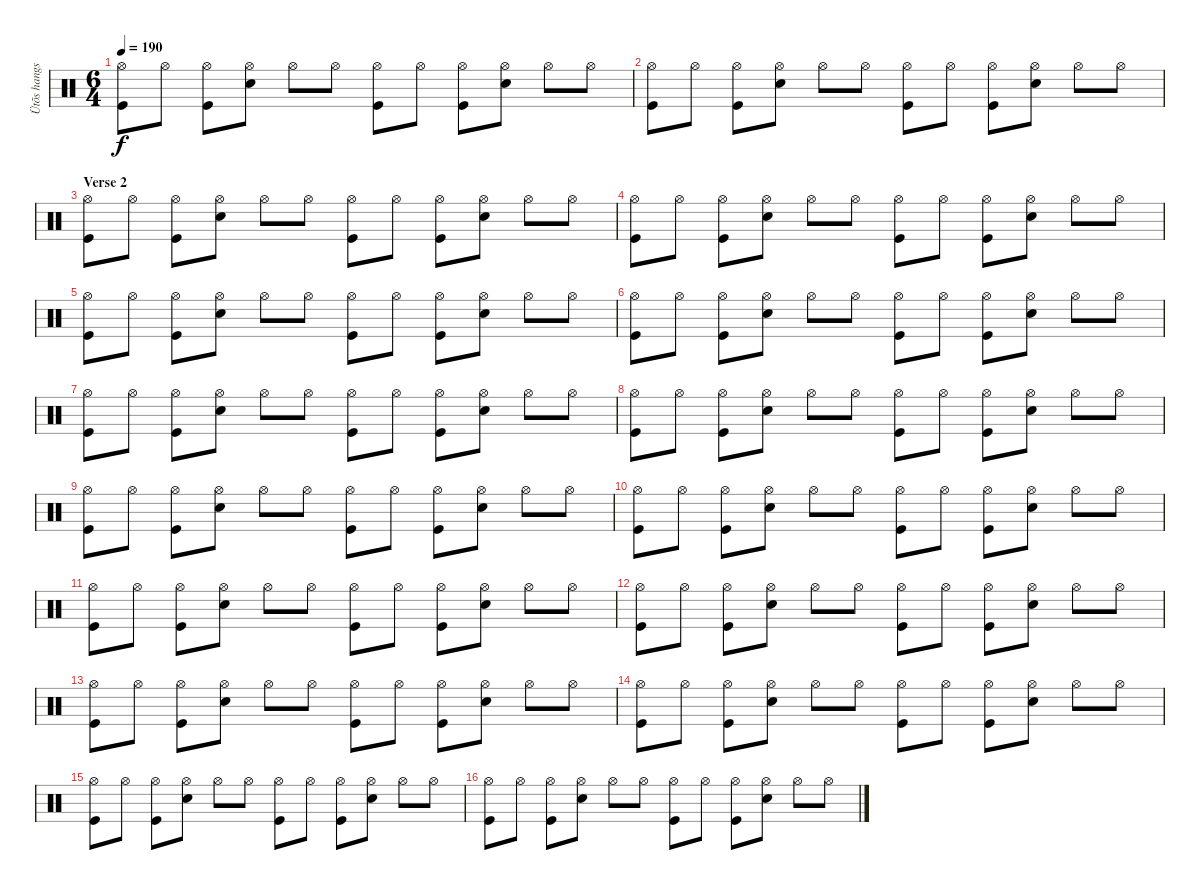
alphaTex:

\track ("Ütõs hangszer" "Ütõs hangs") {instrument percussion}
\staff {score}
\articulation defaults
\ts (6 4)
\tempo 190
\clef neutral
\ks c
("Hi-Hat (open)" "Kick (hit)").8{dy f} "Hi-Hat (open)".8 ("Hi-Hat (open)" "Kick (hit)").8 ("Hi-Hat (open)" "Snare (hit) 2").8 "Hi-Hat (open)".8 "Hi-Hat (open)".8 ("Hi-Hat (open)" "Kick (hit)").8 "Hi-Hat (open)".8 ("Hi-Hat (open)" "Kick (hit)").8 ("Hi-Hat (open)" "Snare (hit) 2").8 "Hi-Hat (open)".8 "Hi-Hat (open)".8 |
("Hi-Hat (open)" "Kick (hit)").8 "Hi-Hat (open)".8 ("Hi-Hat (open)" "Kick (hit)").8 ("Hi-Hat (open)" "Snare (hit) 2").8 "Hi-Hat (open)".8 "Hi-Hat (open)".8 ("Hi-Hat (open)" "Kick (hit)").8 "Hi-Hat (open)".8 ("Hi-Hat (open)" "Kick (hit)").8 ("Hi-Hat (open)" "Snare (hit) 2").8 "Hi-Hat (open)".8 "Hi-Hat (open)".8 |
\section ("" "Verse 2")
("Hi-Hat (open)" "Kick (hit)").8 "Hi-Hat (open)".8 ("Hi-Hat (open)" "Kick (hit)").8 ("Hi-Hat (open)" "Snare (hit) 2").8 "Hi-Hat (open)".8 "Hi-Hat (open)".8 ("Hi-Hat (open)" "Kick (hit)").8 "Hi-Hat (open)".8 ("Hi-Hat (open)" "Kick (hit)").8 ("Hi-Hat (open)" "Snare (hit) 2").8 "Hi-Hat (open)".8 "Hi-Hat (open)".8 |
("Hi-Hat (open)" "Kick (hit)").8 "Hi-Hat (open)".8 ("Hi-Hat (open)" "Kick (hit)").8 ("Hi-Hat (open)" "Snare (hit) 2").8 "Hi-Hat (open)".8 "Hi-Hat (open)".8 ("Hi-Hat (open)" "Kick (hit)").8 "Hi-Hat (open)".8 ("Hi-Hat (open)" "Kick (hit)").8 ("Hi-Hat (open)" "Snare (hit) 2").8 "Hi-Hat (open)".8 "Hi-Hat (open)".8 |
("Hi-Hat (open)" "Kick (hit)").8 "Hi-Hat (open)".8 ("Hi-Hat (open)" "Kick (hit)").8 ("Hi-Hat (open)" "Snare (hit) 2").8 "Hi-Hat (open)".8 "Hi-Hat (open)".8 ("Hi-Hat (open)" "Kick (hit)").8 "Hi-Hat (open)".8 ("Hi-Hat (open)" "Kick (hit)").8 ("Hi-Hat (open)" "Snare (hit) 2").8 "Hi-Hat (open)".8 "Hi-Hat (open)".8 |
("Hi-Hat (open)" "Kick (hit)").8 "Hi-Hat (open)".8 ("Hi-Hat (open)" "Kick (hit)").8 ("Hi-Hat (open)" "Snare (hit) 2").8 "Hi-Hat (open)".8 "Hi-Hat (open)".8 ("Hi-Hat (open)" "Kick (hit)").8 "Hi-Hat (open)".8 ("Hi-Hat (open)" "Kick (hit)").8 ("Hi-Hat (open)" "Snare (hit) 2").8 "Hi-Hat (open)".8 "Hi-Hat (open)".8 |
("Hi-Hat (open)" "Kick (hit)").8 "Hi-Hat (open)".8 ("Hi-Hat (open)" "Kick (hit)").8 ("Hi-Hat (open)" "Snare (hit) 2").8 "Hi-Hat (open)".8 "Hi-Hat (open)".8 ("Hi-Hat (open)" "Kick (hit)").8 "Hi-Hat (open)".8 ("Hi-Hat (open)" "Kick (hit)").8 ("Hi-Hat (open)" "Snare (hit) 2").8 "Hi-Hat (open)".8 "Hi-Hat (open)".8 |
("Hi-Hat (open)" "Kick (hit)").8 "Hi-Hat (open)".8 ("Hi-Hat (open)" "Kick (hit)").8 ("Hi-Hat (open)" "Snare (hit) 2").8 "Hi-Hat (open)".8 "Hi-Hat (open)".8 ("Hi-Hat (open)" "Kick (hit)").8 "Hi-Hat (open)".8 ("Hi-Hat (open)" "Kick (hit)").8 ("Hi-Hat (open)" "Snare (hit) 2").8 "Hi-Hat (open)".8 "Hi-Hat (open)".8 |
("Hi-Hat (open)" "Kick (hit)").8 "Hi-Hat (open)".8 ("Hi-Hat (open)" "Kick (hit)").8 ("Hi-Hat (open)" "Snare (hit) 2").8 "Hi-Hat (open)".8 "Hi-Hat (open)".8 ("Hi-Hat (open)" "Kick (hit)").8 "Hi-Hat (open)".8 ("Hi-Hat (open)" "Kick (hit)").8 ("Hi-Hat (open)" "Snare (hit) 2").8 "Hi-Hat (open)".8 "Hi-Hat (open)".8 |
("Hi-Hat (open)" "Kick (hit)").8 "Hi-Hat (open)".8 ("Hi-Hat (open)" "Kick (hit)").8 ("Hi-Hat (open)" "Snare (hit) 2").8 "Hi-Hat (open)".8 "Hi-Hat (open)".8 ("Hi-Hat (open)" "Kick (hit)").8 "Hi-Hat (open)".8 ("Hi-Hat (open)" "Kick (hit)").8 ("Hi-Hat (open)" "Snare (hit) 2").8 "Hi-Hat (open)".8 "Hi-Hat (open)".8 |
("Hi-Hat (open)" "Kick (hit)").8 "Hi-Hat (open)".8 ("Hi-Hat (open)" "Kick (hit)").8 ("Hi-Hat (open)" "Snare (hit) 2").8 "Hi-Hat (open)".8 "Hi-Hat (open)".8 ("Hi-Hat (open)" "Kick (hit)").8 "Hi-Hat (open)".8 ("Hi-Hat (open)" "Kick (hit)").8 ("Hi-Hat (open)" "Snare (hit) 2").8 "Hi-Hat (open)".8 "Hi-Hat (open)".8 |
("Hi-Hat (open)" "Kick (hit)").8 "Hi-Hat (open)".8 ("Hi-Hat (open)" "Kick (hit)").8 ("Hi-Hat (open)" "Snare (hit) 2").8 "Hi-Hat (open)".8 "Hi-Hat (open)".8 ("Hi-Hat (open)" "Kick (hit)").8 "Hi-Hat (open)".8 ("Hi-Hat (open)" "Kick (hit)").8 ("Hi-Hat (open)" "Snare (hit) 2").8 "Hi-Hat (open)".8 "Hi-Hat (open)".8 |
("Hi-Hat (open)" "Kick (hit)").8 "Hi-Hat (open)".8 ("Hi-Hat (open)" "Kick (hit)").8 ("Hi-Hat (open)" "Snare (hit) 2").8 "Hi-Hat (open)".8 "Hi-Hat (open)".8 ("Hi-Hat (open)" "Kick (hit)").8 "Hi-Hat (open)".8 ("Hi-Hat (open)" "Kick (hit)").8 ("Hi-Hat (open)" "Snare (hit) 2").8 "Hi-Hat (open)".8 "Hi-Hat (open)".8 |
("Hi-Hat (open)" "Kick (hit)").8 "Hi-Hat (open)".8 ("Hi-Hat (open)" "Kick (hit)").8 ("Hi-Hat (open)" "Snare (hit) 2").8 "Hi-Hat (open)".8 "Hi-Hat (open)".8 ("Hi-Hat (open)" "Kick (hit)").8 "Hi-Hat (open)".8 ("Hi-Hat (open)" "Kick (hit)").8 ("Hi-Hat (open)" "Snare (hit) 2").8 "Hi-Hat (open)".8 "Hi-Hat (open)".8 |
("Hi-Hat (open)" "Kick (hit)").8 "Hi-Hat (open)".8 ("Hi-Hat (open)" "Kick (hit)").8 ("Hi-Hat (open)" "Snare (hit) 2").8 "Hi-Hat (open)".8 "Hi-Hat (open)".8 ("Hi-Hat (open)" "Kick (hit)").8 "Hi-Hat (open)".8 ("Hi-Hat (open)" "Kick (hit)").8 ("Hi-Hat (open)" "Snare (hit) 2").8 "Hi-Hat (open)".8 "Hi-Hat (open)".8 |
("Hi-Hat (open)" "Kick (hit)").8 "Hi-Hat (open)".8 ("Hi-Hat (open)" "Kick (hit)").8 ("Hi-Hat (open)" "Snare (hit) 2").8 "Hi-Hat (open)".8 "Hi-Hat (open)".8 ("Hi-Hat (open)" "Kick (hit)").8 "Hi-Hat (open)".8 ("Hi-Hat (open)" "Kick (hit)").8 ("Hi-Hat (open)" "Snare (hit) 2").8 "Hi-Hat (open)".8 "Hi-Hat (open)".8
